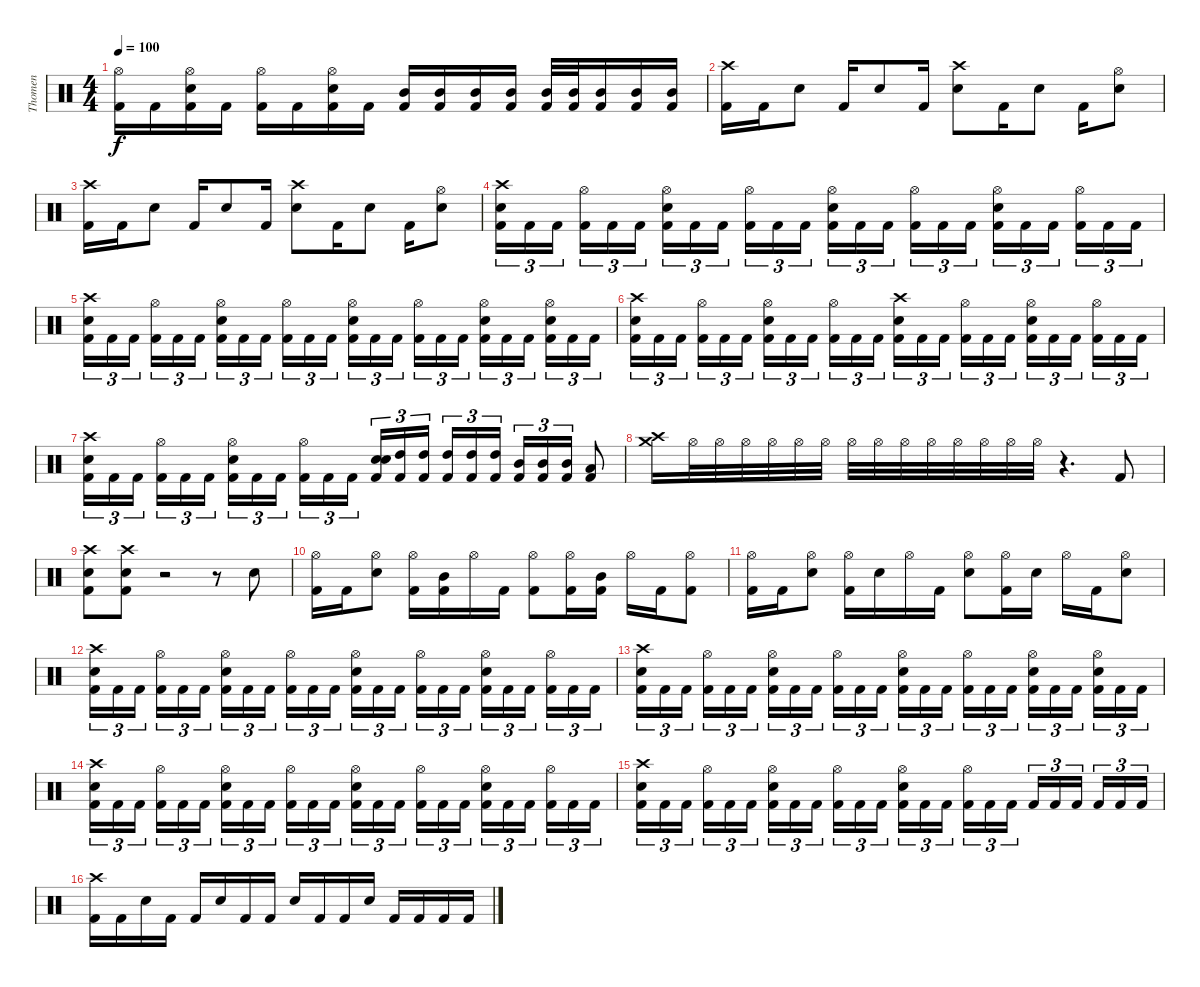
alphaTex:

\track ("Thomen" "Thomen") {instrument percussion}
\staff {score}
\articulation defaults
\ts (4 4)
\tempo 100
\clef neutral
\ks c
("Hi-Hat (open)" "Kick (hit) 2").16{dy f} "Kick (hit) 2".16 ("Hi-Hat (open)" "Snare (hit) 2" "Kick (hit) 2").16 "Kick (hit) 2".16 ("Hi-Hat (open)" "Kick (hit) 2").16 "Kick (hit) 2".16 ("Hi-Hat (open)" "Snare (hit) 2" "Kick (hit) 2").16 "Kick (hit) 2".16 ("Mid Tom (hit)" "Kick (hit) 2").16 ("Mid Tom (hit)" "Kick (hit) 2").16 ("Mid Tom (hit)" "Kick (hit) 2").16 ("Mid Tom (hit)" "Kick (hit) 2").16 ("Mid Tom (hit)" "Kick (hit) 2").32 ("Mid Tom (hit)" "Kick (hit) 2").32 ("Mid Tom (hit)" "Kick (hit) 2").16 ("Mid Tom (hit)" "Kick (hit) 2").16 ("Mid Tom (hit)" "Kick (hit) 2").16 |
("Crash high (hit)" "Kick (hit) 2").16 "Kick (hit) 2".16 "Snare (hit) 2".8 "Kick (hit) 2".16 "Snare (hit) 2".8 "Kick (hit) 2".16 ("Crash high (hit)" "Snare (hit) 2").8 "Kick (hit) 2".16 "Snare (hit) 2".8 "Kick (hit) 2".16 ("Hi-Hat (open)" "Snare (hit) 2").8 |
("Crash high (hit)" "Kick (hit) 2").16 "Kick (hit) 2".16 "Snare (hit) 2".8 "Kick (hit) 2".16 "Snare (hit) 2".8 "Kick (hit) 2".16 ("Crash high (hit)" "Snare (hit) 2").8 "Kick (hit) 2".16 "Snare (hit) 2".8 "Kick (hit) 2".16 ("Hi-Hat (open)" "Snare (hit) 2").8 |
("Crash high (hit)" "Snare (hit) 2" "Kick (hit) 2").16{tu (3 2)} "Kick (hit) 2".16{tu (3 2)} "Kick (hit) 2".16{tu (3 2)} ("Hi-Hat (open)" "Kick (hit) 2").16{tu (3 2)} "Kick (hit) 2".16{tu (3 2)} "Kick (hit) 2".16{tu (3 2)} ("Hi-Hat (open)" "Snare (hit) 2" "Kick (hit) 2").16{tu (3 2)} "Kick (hit) 2".16{tu (3 2)} "Kick (hit) 2".16{tu (3 2)} ("Hi-Hat (open)" "Kick (hit) 2").16{tu (3 2)} "Kick (hit) 2".16{tu (3 2)} "Kick (hit) 2".16{tu (3 2)} ("Hi-Hat (open)" "Snare (hit) 2" "Kick (hit) 2").16{tu (3 2)} "Kick (hit) 2".16{tu (3 2)} "Kick (hit) 2".16{tu (3 2)} ("Hi-Hat (open)" "Kick (hit) 2").16{tu (3 2)} "Kick (hit) 2".16{tu (3 2)} "Kick (hit) 2".16{tu (3 2)} ("Hi-Hat (open)" "Snare (hit) 2" "Kick (hit) 2").16{tu (3 2)} "Kick (hit) 2".16{tu (3 2)} "Kick (hit) 2".16{tu (3 2)} ("Hi-Hat (open)" "Kick (hit) 2").16{tu (3 2)} "Kick (hit) 2".16{tu (3 2)} "Kick (hit) 2".16{tu (3 2)} |
("Crash high (hit)" "Snare (hit) 2" "Kick (hit) 2").16{tu (3 2)} "Kick (hit) 2".16{tu (3 2)} "Kick (hit) 2".16{tu (3 2)} ("Hi-Hat (open)" "Kick (hit) 2").16{tu (3 2)} "Kick (hit) 2".16{tu (3 2)} "Kick (hit) 2".16{tu (3 2)} ("Hi-Hat (open)" "Snare (hit) 2" "Kick (hit) 2").16{tu (3 2)} "Kick (hit) 2".16{tu (3 2)} "Kick (hit) 2".16{tu (3 2)} ("Hi-Hat (open)" "Kick (hit) 2").16{tu (3 2)} "Kick (hit) 2".16{tu (3 2)} "Kick (hit) 2".16{tu (3 2)} ("Hi-Hat (open)" "Snare (hit) 2" "Kick (hit) 2").16{tu (3 2)} "Kick (hit) 2".16{tu (3 2)} "Kick (hit) 2".16{tu (3 2)} ("Hi-Hat (open)" "Kick (hit) 2").16{tu (3 2)} "Kick (hit) 2".16{tu (3 2)} "Kick (hit) 2".16{tu (3 2)} ("Hi-Hat (open)" "Snare (hit) 2" "Kick (hit) 2").16{tu (3 2)} "Kick (hit) 2".16{tu (3 2)} "Kick (hit) 2".16{tu (3 2)} ("Hi-Hat (open)" "Snare (hit) 2" "Kick (hit) 2").16{tu (3 2)} "Kick (hit) 2".16{tu (3 2)} "Kick (hit) 2".16{tu (3 2)} |
("Crash high (hit)" "Snare (hit) 2" "Kick (hit) 2").16{tu (3 2)} "Kick (hit) 2".16{tu (3 2)} "Kick (hit) 2".16{tu (3 2)} ("Hi-Hat (open)" "Kick (hit) 2").16{tu (3 2)} "Kick (hit) 2".16{tu (3 2)} "Kick (hit) 2".16{tu (3 2)} ("Hi-Hat (open)" "Snare (hit) 2" "Kick (hit) 2").16{tu (3 2)} "Kick (hit) 2".16{tu (3 2)} "Kick (hit) 2".16{tu (3 2)} ("Hi-Hat (open)" "Kick (hit) 2").16{tu (3 2)} "Kick (hit) 2".16{tu (3 2)} "Kick (hit) 2".16{tu (3 2)} ("Crash high (hit)" "Snare (hit) 2" "Kick (hit) 2").16{tu (3 2)} "Kick (hit) 2".16{tu (3 2)} "Kick (hit) 2".16{tu (3 2)} ("Hi-Hat (open)" "Kick (hit) 2").16{tu (3 2)} "Kick (hit) 2".16{tu (3 2)} "Kick (hit) 2".16{tu (3 2)} ("Hi-Hat (open)" "Snare (hit) 2" "Kick (hit) 2").16{tu (3 2)} "Kick (hit) 2".16{tu (3 2)} "Kick (hit) 2".16{tu (3 2)} ("Hi-Hat (open)" "Kick (hit) 2").16{tu (3 2)} "Kick (hit) 2".16{tu (3 2)} "Kick (hit) 2".16{tu (3 2)} |
("Crash high (hit)" "Snare (hit) 2" "Kick (hit) 2").16{tu (3 2)} "Kick (hit) 2".16{tu (3 2)} "Kick (hit) 2".16{tu (3 2)} ("Hi-Hat (open)" "Kick (hit) 2").16{tu (3 2)} "Kick (hit) 2".16{tu (3 2)} "Kick (hit) 2".16{tu (3 2)} ("Hi-Hat (open)" "Snare (hit) 2" "Kick (hit) 2").16{tu (3 2)} "Kick (hit) 2".16{tu (3 2)} "Kick (hit) 2".16{tu (3 2)} ("Hi-Hat (open)" "Kick (hit) 2").16{tu (3 2)} "Kick (hit) 2".16{tu (3 2)} "Kick (hit) 2".16{tu (3 2)} ("Electric Snare (hit)" "Snare (hit) 2" "Kick (hit) 2").16{tu (3 2)} ("High Tom (hit)" "Kick (hit) 2").16{tu (3 2)} ("High Tom (hit)" "Kick (hit) 2").16{tu (3 2)} ("High Tom (hit)" "Kick (hit) 2").16{tu (3 2)} ("High Tom (hit)" "Kick (hit) 2").16{tu (3 2)} ("High Tom (hit)" "Kick (hit) 2").16{tu (3 2)} ("Mid Tom (hit)" "Kick (hit) 2").16{tu (3 2)} ("Mid Tom (hit)" "Kick (hit) 2").16{tu (3 2)} ("Mid Tom (hit)" "Kick (hit) 2").16{tu (3 2)} ("Low Tom (hit)" "Kick (hit) 2").8 |
("Crash medium (hit)" "Crash high (hit)").16 "Hi-Hat (open)".32 "Hi-Hat (open)".32 "Hi-Hat (open)".32 "Hi-Hat (open)".32 "Hi-Hat (open)".32 "Hi-Hat (open)".32 "Hi-Hat (open)".32 "Hi-Hat (open)".32 "Hi-Hat (open)".32 "Hi-Hat (open)".32 "Hi-Hat (open)".32 "Hi-Hat (open)".32 "Hi-Hat (open)".32 "Hi-Hat (open)".32 r.4{d} "Kick (hit) 2".8 |
("Crash high (hit)" "Snare (hit) 2" "Kick (hit) 2").8 ("Crash high (hit)" "Snare (hit) 2" "Kick (hit) 2").8 r.2 r.8 "Snare (hit) 2".8 |
("Hi-Hat (open)" "Kick (hit) 2").16 "Kick (hit) 2".16 ("Hi-Hat (open)" "Snare (hit) 2").8 ("Hi-Hat (open)" "Kick (hit) 2").16 ("Mid Tom (hit)" "Kick (hit) 2").16 "Hi-Hat (open)".16 "Kick (hit) 2".16 ("Hi-Hat (open)" "Kick (hit) 2").8 ("Hi-Hat (open)" "Kick (hit) 2").16 ("Mid Tom (hit)" "Kick (hit) 2").16 "Hi-Hat (open)".16 "Kick (hit) 2".16 ("Hi-Hat (open)" "Kick (hit) 2").8 |
("Hi-Hat (open)" "Kick (hit) 2").16 "Kick (hit) 2".16 ("Hi-Hat (open)" "Snare (hit) 2").8 ("Hi-Hat (open)" "Kick (hit) 2").16 "Snare (hit) 2".16 "Hi-Hat (open)".16 "Kick (hit) 2".16 ("Hi-Hat (open)" "Snare (hit) 2").8 ("Hi-Hat (open)" "Kick (hit) 2").16 "Snare (hit) 2".16 "Hi-Hat (open)".16 "Kick (hit) 2".16 ("Hi-Hat (open)" "Snare (hit) 2").8 |
("Crash high (hit)" "Snare (hit) 2" "Kick (hit) 2").16{tu (3 2)} "Kick (hit) 2".16{tu (3 2)} "Kick (hit) 2".16{tu (3 2)} ("Hi-Hat (open)" "Kick (hit) 2").16{tu (3 2)} "Kick (hit) 2".16{tu (3 2)} "Kick (hit) 2".16{tu (3 2)} ("Hi-Hat (open)" "Snare (hit) 2" "Kick (hit) 2").16{tu (3 2)} "Kick (hit) 2".16{tu (3 2)} "Kick (hit) 2".16{tu (3 2)} ("Hi-Hat (open)" "Kick (hit) 2").16{tu (3 2)} "Kick (hit) 2".16{tu (3 2)} "Kick (hit) 2".16{tu (3 2)} ("Hi-Hat (open)" "Snare (hit) 2" "Kick (hit) 2").16{tu (3 2)} "Kick (hit) 2".16{tu (3 2)} "Kick (hit) 2".16{tu (3 2)} ("Hi-Hat (open)" "Kick (hit) 2").16{tu (3 2)} "Kick (hit) 2".16{tu (3 2)} "Kick (hit) 2".16{tu (3 2)} ("Hi-Hat (open)" "Snare (hit) 2" "Kick (hit) 2").16{tu (3 2)} "Kick (hit) 2".16{tu (3 2)} "Kick (hit) 2".16{tu (3 2)} ("Hi-Hat (open)" "Kick (hit) 2").16{tu (3 2)} "Kick (hit) 2".16{tu (3 2)} "Kick (hit) 2".16{tu (3 2)} |
("Crash high (hit)" "Snare (hit) 2" "Kick (hit) 2").16{tu (3 2)} "Kick (hit) 2".16{tu (3 2)} "Kick (hit) 2".16{tu (3 2)} ("Hi-Hat (open)" "Kick (hit) 2").16{tu (3 2)} "Kick (hit) 2".16{tu (3 2)} "Kick (hit) 2".16{tu (3 2)} ("Hi-Hat (open)" "Snare (hit) 2" "Kick (hit) 2").16{tu (3 2)} "Kick (hit) 2".16{tu (3 2)} "Kick (hit) 2".16{tu (3 2)} ("Hi-Hat (open)" "Kick (hit) 2").16{tu (3 2)} "Kick (hit) 2".16{tu (3 2)} "Kick (hit) 2".16{tu (3 2)} ("Hi-Hat (open)" "Snare (hit) 2" "Kick (hit) 2").16{tu (3 2)} "Kick (hit) 2".16{tu (3 2)} "Kick (hit) 2".16{tu (3 2)} ("Hi-Hat (open)" "Kick (hit) 2").16{tu (3 2)} "Kick (hit) 2".16{tu (3 2)} "Kick (hit) 2".16{tu (3 2)} ("Hi-Hat (open)" "Snare (hit) 2" "Kick (hit) 2").16{tu (3 2)} "Kick (hit) 2".16{tu (3 2)} "Kick (hit) 2".16{tu (3 2)} ("Hi-Hat (open)" "Snare (hit) 2" "Kick (hit) 2").16{tu (3 2)} "Kick (hit) 2".16{tu (3 2)} "Kick (hit) 2".16{tu (3 2)} |
("Crash high (hit)" "Snare (hit) 2" "Kick (hit) 2").16{tu (3 2)} "Kick (hit) 2".16{tu (3 2)} "Kick (hit) 2".16{tu (3 2)} ("Hi-Hat (open)" "Kick (hit) 2").16{tu (3 2)} "Kick (hit) 2".16{tu (3 2)} "Kick (hit) 2".16{tu (3 2)} ("Hi-Hat (open)" "Snare (hit) 2" "Kick (hit) 2").16{tu (3 2)} "Kick (hit) 2".16{tu (3 2)} "Kick (hit) 2".16{tu (3 2)} ("Hi-Hat (open)" "Kick (hit) 2").16{tu (3 2)} "Kick (hit) 2".16{tu (3 2)} "Kick (hit) 2".16{tu (3 2)} ("Hi-Hat (open)" "Snare (hit) 2" "Kick (hit) 2").16{tu (3 2)} "Kick (hit) 2".16{tu (3 2)} "Kick (hit) 2".16{tu (3 2)} ("Hi-Hat (open)" "Kick (hit) 2").16{tu (3 2)} "Kick (hit) 2".16{tu (3 2)} "Kick (hit) 2".16{tu (3 2)} ("Hi-Hat (open)" "Snare (hit) 2" "Kick (hit) 2").16{tu (3 2)} "Kick (hit) 2".16{tu (3 2)} "Kick (hit) 2".16{tu (3 2)} ("Hi-Hat (open)" "Kick (hit) 2").16{tu (3 2)} "Kick (hit) 2".16{tu (3 2)} "Kick (hit) 2".16{tu (3 2)} |
("Crash high (hit)" "Snare (hit) 2" "Kick (hit) 2").16{tu (3 2)} "Kick (hit) 2".16{tu (3 2)} "Kick (hit) 2".16{tu (3 2)} ("Hi-Hat (open)" "Kick (hit) 2").16{tu (3 2)} "Kick (hit) 2".16{tu (3 2)} "Kick (hit) 2".16{tu (3 2)} ("Hi-Hat (open)" "Snare (hit) 2" "Kick (hit) 2").16{tu (3 2)} "Kick (hit) 2".16{tu (3 2)} "Kick (hit) 2".16{tu (3 2)} ("Hi-Hat (open)" "Kick (hit) 2").16{tu (3 2)} "Kick (hit) 2".16{tu (3 2)} "Kick (hit) 2".16{tu (3 2)} ("Hi-Hat (open)" "Snare (hit) 2" "Kick (hit) 2").16{tu (3 2)} "Kick (hit) 2".16{tu (3 2)} "Kick (hit) 2".16{tu (3 2)} ("Hi-Hat (open)" "Kick (hit) 2").16{tu (3 2)} "Kick (hit) 2".16{tu (3 2)} "Kick (hit) 2".16{tu (3 2)} "Kick (hit) 2".16{tu (3 2)} "Kick (hit) 2".16{tu (3 2)} "Kick (hit) 2".16{tu (3 2)} "Kick (hit) 2".16{tu (3 2)} "Kick (hit) 2".16{tu (3 2)} "Kick (hit) 2".16{tu (3 2)} |
("Crash high (hit)" "Kick (hit) 2").16 "Kick (hit) 2".16 "Snare (hit) 2".16 "Kick (hit) 2".16 "Kick (hit) 2".16 "Snare (hit) 2".16 "Kick (hit) 2".16 "Kick (hit) 2".16 "Snare (hit) 2".16 "Kick (hit) 2".16 "Kick (hit) 2".16 "Snare (hit) 2".16 "Kick (hit) 2".16 "Kick (hit) 2".16 "Kick (hit) 2".16 "Kick (hit) 2".16
